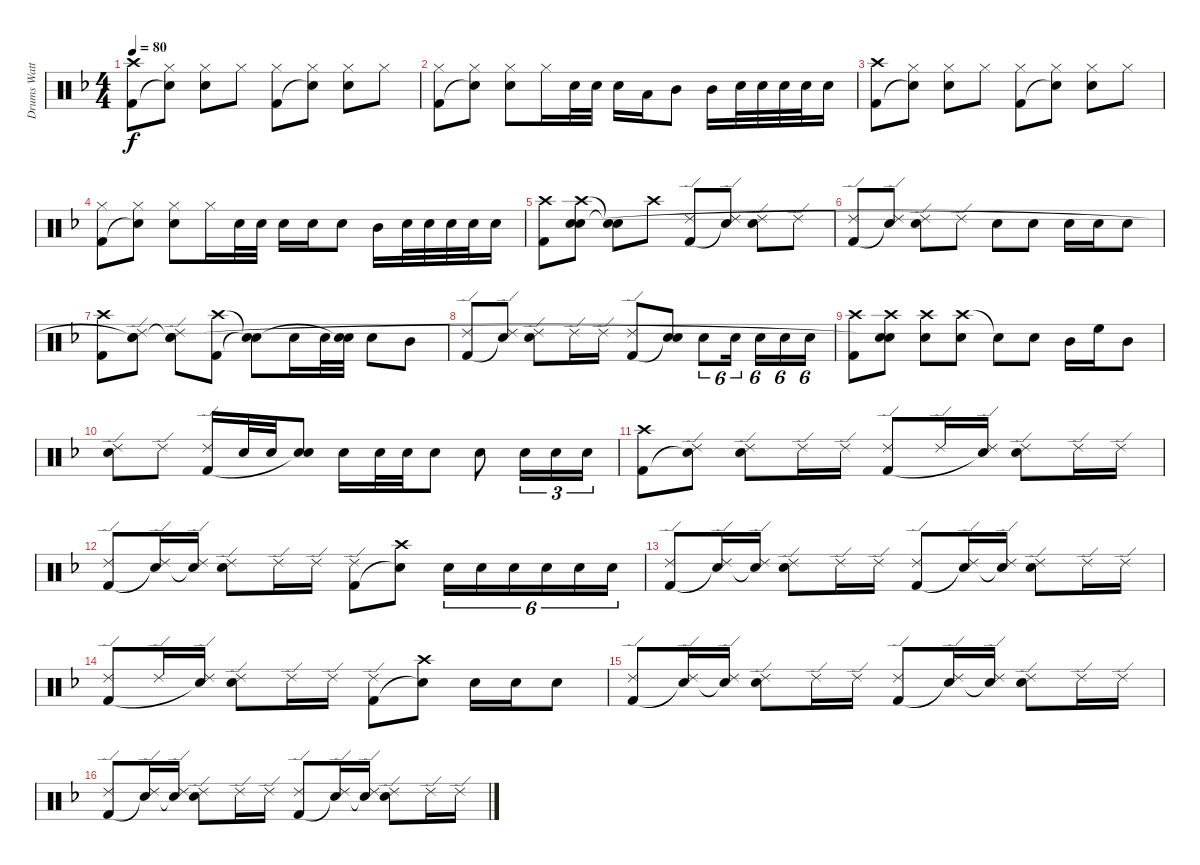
\track ("Drums Watts" "Drums Watt") {instrument percussion}
\staff {score}
\articulation defaults
\ts (4 4)
\tempo 80
\clef neutral
\ks f
("Crash high (hit)" "Kick (hit) 2").8{dy f} ("Hi-Hat (closed)" "Snare (hit)"{t}).8 ("Hi-Hat (closed)" "Snare (hit) 2").8 "Hi-Hat (closed)".8 ("Hi-Hat (closed)" "Kick (hit) 2").8 ("Hi-Hat (closed)" "Snare (hit)"{t}).8 ("Hi-Hat (closed)" "Snare (hit) 2").8 "Hi-Hat (closed)".8 |
("Hi-Hat (closed)" "Kick (hit) 2").8 ("Hi-Hat (closed)" "Snare (hit)"{t}).8 ("Hi-Hat (closed)" "Snare (hit) 2").8 "Hi-Hat (closed)".16 "Snare (hit) 2".32 "Snare (hit) 2".32 "Snare (hit) 2".16 "Low Tom (hit)".16 "Mid Tom (hit)".8 "Mid Tom (hit)".16 "Snare (hit) 2".32 "Snare (hit) 2".32 "Snare (hit) 2".32 "Snare (hit) 2".32 "Snare (hit) 2".16 |
("Crash high (hit)" "Kick (hit) 2").8 ("Hi-Hat (closed)" "Snare (hit)"{t}).8 ("Hi-Hat (closed)" "Snare (hit) 2").8 "Hi-Hat (closed)".8 ("Hi-Hat (closed)" "Kick (hit) 2").8 ("Hi-Hat (closed)" "Snare (hit)"{t}).8 ("Hi-Hat (closed)" "Snare (hit) 2").8 "Hi-Hat (closed)".8 |
("Hi-Hat (closed)" "Kick (hit) 2").8 ("Hi-Hat (closed)" "Snare (hit)"{t}).8 ("Hi-Hat (closed)" "Snare (hit) 2").8 "Hi-Hat (closed)".16 "Snare (hit) 2".32 "Snare (hit) 2".32 "Snare (hit) 2".16 "Snare (hit) 2".16 "Snare (hit) 2".8 "Mid Tom (hit)".16 "Snare (hit) 2".32 "Snare (hit) 2".32 "Snare (hit) 2".32 "Snare (hit) 2".32 "Snare (hit) 2".16 |
("Crash high (hit)" "Kick (hit) 2").8 ("Crash high (hit)" "Snare (hit) 2" "Snare (hit)").8 ("Snare (hit)"{t} "Snare (hit)"{t}).8 "Crash high (hit)".8 ("Ride (edge) 2" "Kick (hit) 2").8 ("Ride (edge) 2" "Snare (hit)"{t}).8 ("Ride (edge) 2" "Snare (hit) 2").8 "Ride (edge) 2".8 |
("Ride (edge) 2" "Kick (hit) 2").8 ("Ride (edge) 2" "Snare (hit)"{t}).8 ("Ride (edge) 2" "Snare (hit) 2").8 "Ride (edge) 2".8 "Snare (hit) 2".8 "Snare (hit) 2".8 "Snare (hit) 2".16 "Snare (hit) 2".16 "Snare (hit) 2".8 |
("Crash high (hit)" "Kick (hit) 2").8 ("Ride (edge) 2" "Snare (hit) 2" "Snare (hit)"{t}).8 ("Ride (edge) 2" "Snare (hit) 2" "Snare (hit)"{t}).8 ("Crash high (hit)" "Kick (hit) 2").8 ("Snare (hit)"{t} "Snare (hit)"{t}).8 "Snare (hit) 2".16 "Snare (hit) 2".32 ("Snare (hit) 2" "Snare (hit)"{t}).32 "Snare (hit) 2".8 "Mid Tom (hit)".8 |
("Ride (edge) 2" "Kick (hit) 2").8 ("Ride (edge) 2" "Snare (hit)"{t}).8 ("Ride (edge) 2" "Snare (hit) 2").8 "Ride (edge) 2".16 "Ride (edge) 2".16 ("Ride (edge) 2" "Kick (hit) 2").8 ("Snare (hit) 2" "Snare (hit)"{t}).8 "Snare (hit) 2".8{tu (6 4)} "Snare (hit) 2".16{tu (6 4)} "Snare (hit) 2".16{tu (6 4)} "Snare (hit) 2".16{tu (6 4)} "Snare (hit) 2".16{tu (6 4)} |
("Crash high (hit)" "Kick (hit) 2").8 ("Crash high (hit)" "Snare (hit) 2" "Snare (hit)"{t}).8 ("Crash high (hit)" "Snare (hit) 2").8 ("Crash high (hit)" "Snare (hit) 2").8 "Snare (hit)"{t}.8 "Snare (hit) 2".8 "Mid Tom (hit)".16 "High Floor Tom (hit)".16 "Mid Tom (hit)".8 |
("Ride (edge) 2" "Snare (hit) 2").8 "Ride (edge) 2".8 ("Ride (edge) 2" "Kick (hit) 2").16 "Snare (hit) 2".32 "Snare (hit) 2".32 ("Snare (hit) 2" "Snare (hit)"{t}).8 "Snare (hit) 2".16 "Snare (hit) 2".32 "Snare (hit) 2".32 "Snare (hit) 2".8 "Snare (hit) 2".8 "Snare (hit) 2".16{tu (3 2)} "Snare (hit) 2".16{tu (3 2)} "Snare (hit) 2".16{tu (3 2)} |
("Crash high (hit)" "Kick (hit) 2").8 ("Ride (edge) 2" "Snare (hit)"{t}).8 ("Ride (edge) 2" "Snare (hit) 2").8 "Ride (edge) 2".16 "Ride (edge) 2".16 ("Ride (edge) 2" "Kick (hit) 2").8 "Ride (edge) 2".16 ("Ride (edge) 2" "Snare (hit)"{t}).16 ("Ride (edge) 2" "Snare (hit) 2").8 "Ride (edge) 2".16 "Ride (edge) 2".16 |
("Ride (edge) 2" "Kick (hit) 2").8 ("Ride (edge) 2" "Snare (hit)"{t}).16 ("Ride (edge) 2" "Snare (hit)"{t}).16 ("Ride (edge) 2" "Snare (hit) 2").8 "Ride (edge) 2".16 "Ride (edge) 2".16 ("Ride (edge) 2" "Kick (hit) 2").8 ("Crash high (hit)" "Snare (hit)"{t}).8 "Snare (hit) 2".16{tu (6 4)} "Snare (hit) 2".16{tu (6 4)} "Snare (hit) 2".16{tu (6 4)} "Snare (hit) 2".16{tu (6 4)} "Snare (hit) 2".16{tu (6 4)} "Snare (hit) 2".16{tu (6 4)} |
("Ride (edge) 2" "Kick (hit) 2").8 ("Ride (edge) 2" "Snare (hit)"{t}).16 ("Ride (edge) 2" "Snare (hit)"{t}).16 ("Ride (edge) 2" "Snare (hit) 2").8 "Ride (edge) 2".16 "Ride (edge) 2".16 ("Ride (edge) 2" "Kick (hit) 2").8 ("Ride (edge) 2" "Snare (hit)"{t}).16 ("Ride (edge) 2" "Snare (hit)"{t}).16 ("Ride (edge) 2" "Snare (hit) 2").8 "Ride (edge) 2".16 "Ride (edge) 2".16 |
("Ride (edge) 2" "Kick (hit) 2").8 "Ride (edge) 2".16 ("Ride (edge) 2" "Snare (hit)"{t}).16 ("Ride (edge) 2" "Snare (hit) 2").8 "Ride (edge) 2".16 "Ride (edge) 2".16 ("Ride (edge) 2" "Kick (hit) 2").8 ("Crash high (hit)" "Snare (hit)"{t}).8 "Snare (hit) 2".16 "Snare (hit) 2".16 "Snare (hit) 2".8 |
("Ride (edge) 2" "Kick (hit) 2").8 ("Ride (edge) 2" "Snare (hit)"{t}).16 ("Ride (edge) 2" "Snare (hit)"{t}).16 ("Ride (edge) 2" "Snare (hit) 2").8 "Ride (edge) 2".16 "Ride (edge) 2".16 ("Ride (edge) 2" "Kick (hit) 2").8 ("Ride (edge) 2" "Snare (hit)"{t}).16 ("Ride (edge) 2" "Snare (hit)"{t}).16 ("Ride (edge) 2" "Snare (hit) 2").8 "Ride (edge) 2".16 "Ride (edge) 2".16 |
("Ride (edge) 2" "Kick (hit) 2").8 ("Ride (edge) 2" "Snare (hit)"{t}).16 ("Ride (edge) 2" "Snare (hit)"{t}).16 ("Ride (edge) 2" "Snare (hit) 2").8 "Ride (edge) 2".16 "Ride (edge) 2".16 ("Ride (edge) 2" "Kick (hit) 2").8 ("Ride (edge) 2" "Snare (hit)"{t}).16 ("Ride (edge) 2" "Snare (hit)"{t}).16 ("Ride (edge) 2" "Snare (hit) 2").8 "Ride (edge) 2".16 "Ride (edge) 2".16
